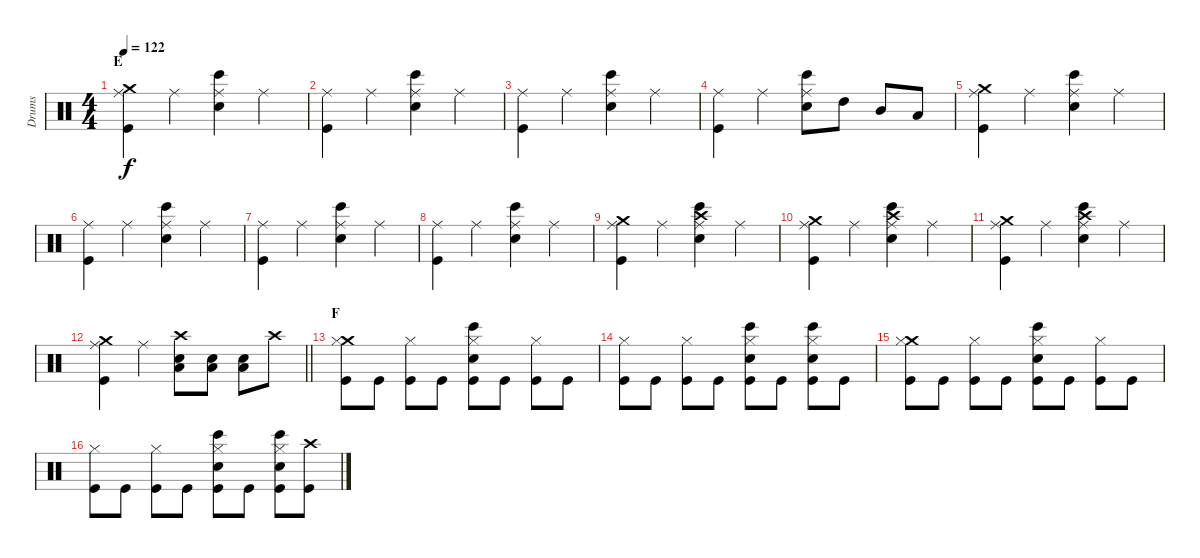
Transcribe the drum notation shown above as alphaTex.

\track ("Drums" "Drums") {instrument percussion}
\staff {score}
\articulation defaults
\ts (4 4)
\section ("" "E")
\tempo 122
\clef neutral
\ks c
("Crash medium (hit)" "Ride (middle)" "Kick (hit)").4{dy f} "Ride (middle)".4 ("Ride (middle)" "Snare (hit) 2" "Bongo High (hit)").4 "Ride (middle)".4 |
("Ride (middle)" "Kick (hit)").4 "Ride (middle)".4 ("Ride (middle)" "Snare (hit) 2" "Bongo High (hit)").4 "Ride (middle)".4 |
("Ride (middle)" "Kick (hit)").4 "Ride (middle)".4 ("Ride (middle)" "Snare (hit) 2" "Bongo High (hit)").4 "Ride (middle)".4 |
("Ride (middle)" "Kick (hit)").4 "Ride (middle)".4 ("Ride (middle)" "Snare (hit) 2" "Bongo High (hit)").8 "High Tom (hit)".8 "Mid Tom (hit)".8 "Low Tom (hit)".8 |
("Crash medium (hit)" "Ride (middle)" "Kick (hit)").4 "Ride (middle)".4 ("Ride (middle)" "Snare (hit) 2" "Bongo High (hit)").4 "Ride (middle)".4 |
("Ride (middle)" "Kick (hit)").4 "Ride (middle)".4 ("Ride (middle)" "Snare (hit) 2" "Bongo High (hit)").4 "Ride (middle)".4 |
("Ride (middle)" "Kick (hit)").4 "Ride (middle)".4 ("Ride (middle)" "Snare (hit) 2" "Bongo High (hit)").4 "Ride (middle)".4 |
("Ride (middle)" "Kick (hit)").4 "Ride (middle)".4 ("Ride (middle)" "Snare (hit) 2" "Bongo High (hit)").4 "Ride (middle)".4 |
("Crash medium (hit)" "Ride (middle)" "Kick (hit)").4 "Ride (middle)".4 ("Crash high (hit)" "Ride (middle)" "Snare (hit) 2" "Bongo High (hit)").4 "Ride (middle)".4 |
("Crash medium (hit)" "Ride (middle)" "Kick (hit)").4 "Ride (middle)".4 ("Crash high (hit)" "Ride (middle)" "Snare (hit) 2" "Bongo High (hit)").4 "Ride (middle)".4 |
("Crash medium (hit)" "Ride (middle)" "Kick (hit)").4 "Ride (middle)".4 ("Crash high (hit)" "Ride (middle)" "Snare (hit) 2" "Bongo High (hit)").4 "Ride (middle)".4 |
\barLineRight lightlight
("Crash medium (hit)" "Ride (middle)" "Kick (hit)").4 "Ride (middle)".4 ("Crash high (hit)" "Snare (hit) 2" "Low Floor Tom (hit)").8 ("Snare (hit) 2" "Low Floor Tom (hit)").8 ("Snare (hit) 2" "Low Floor Tom (hit)").8 "Crash high (hit)".8 |
\section ("" "F")
("Crash medium (hit)" "Hi-Hat (closed)" "Kick (hit)").8 "Kick (hit)".8 ("Hi-Hat (closed)" "Kick (hit)").8 "Kick (hit)".8 ("Hi-Hat (closed)" "Snare (hit) 2" "Bongo High (hit)" "Kick (hit)").8 "Kick (hit)".8 ("Hi-Hat (closed)" "Kick (hit)").8 "Kick (hit)".8 |
("Hi-Hat (closed)" "Kick (hit)").8 "Kick (hit)".8 ("Hi-Hat (closed)" "Kick (hit)").8 "Kick (hit)".8 ("Hi-Hat (closed)" "Snare (hit) 2" "Bongo High (hit)" "Kick (hit)").8 "Kick (hit)".8 ("Hi-Hat (closed)" "Snare (hit) 2" "Bongo High (hit)" "Kick (hit)").8 "Kick (hit)".8 |
("Crash medium (hit)" "Hi-Hat (closed)" "Kick (hit)").8 "Kick (hit)".8 ("Hi-Hat (closed)" "Kick (hit)").8 "Kick (hit)".8 ("Hi-Hat (closed)" "Snare (hit) 2" "Bongo High (hit)" "Kick (hit)").8 "Kick (hit)".8 ("Hi-Hat (closed)" "Kick (hit)").8 "Kick (hit)".8 |
("Hi-Hat (closed)" "Kick (hit)").8 "Kick (hit)".8 ("Hi-Hat (closed)" "Kick (hit)").8 "Kick (hit)".8 ("Hi-Hat (closed)" "Snare (hit) 2" "Bongo High (hit)" "Kick (hit)").8 "Kick (hit)".8 ("Hi-Hat (closed)" "Snare (hit) 2" "Bongo High (hit)" "Kick (hit)").8 ("Crash high (hit)" "Kick (hit)").8
